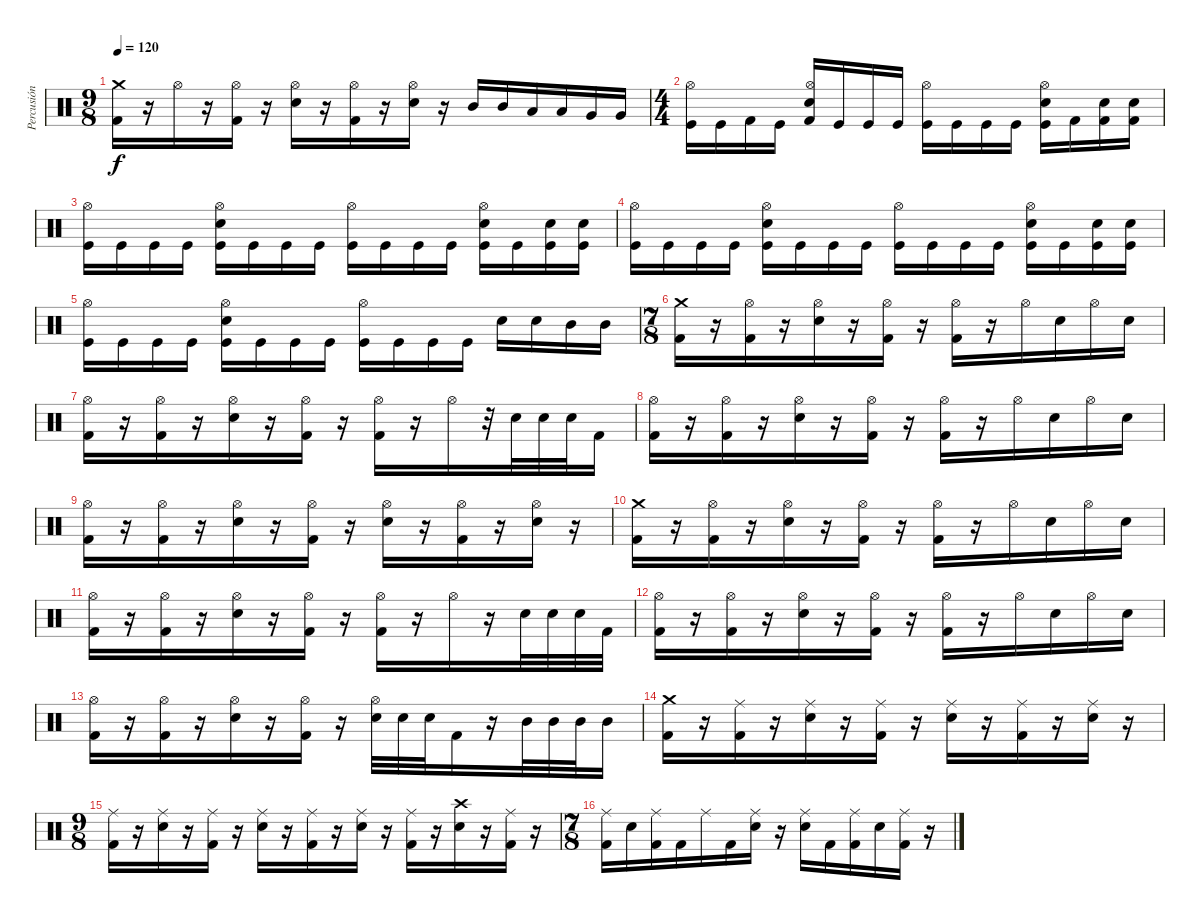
\track ("Percusión" "Percusión") {instrument percussion}
\staff {score}
\articulation defaults
\ts (9 8)
\tempo 120
\clef neutral
\ks c
("Crash medium (hit)" "Kick (hit) 2").16{dy f} r.16 "Hi-Hat (open)".16 r.16 ("Hi-Hat (open)" "Kick (hit) 2").16 r.16 ("Hi-Hat (open)" "Electric Snare (hit)").16 r.16 ("Hi-Hat (open)" "Kick (hit) 2").16 r.16 ("Hi-Hat (open)" "Electric Snare (hit)").16 r.16 "Mid Tom (hit)".16 "Mid Tom (hit)".16 "Low Tom (hit)".16 "Low Tom (hit)".16 "Very Low Tom (hit)".16 "Very Low Tom (hit)".16 |
\ts (4 4)
("Hi-Hat (open)" "Kick (hit)").16 "Kick (hit)".16 "Kick (hit) 2".16 "Kick (hit)".16 ("Hi-Hat (open)" "Electric Snare (hit)" "Kick (hit) 2").16 "Kick (hit)".16 "Kick (hit)".16 "Kick (hit)".16 ("Hi-Hat (open)" "Kick (hit)").16 "Kick (hit)".16 "Kick (hit)".16 "Kick (hit)".16 ("Hi-Hat (open)" "Electric Snare (hit)" "Kick (hit)").16 "Kick (hit) 2".16 ("Electric Snare (hit)" "Kick (hit) 2").16 ("Electric Snare (hit)" "Kick (hit) 2").16 |
("Hi-Hat (open)" "Kick (hit)").16 "Kick (hit)".16 "Kick (hit)".16 "Kick (hit)".16 ("Hi-Hat (open)" "Electric Snare (hit)" "Kick (hit)").16 "Kick (hit)".16 "Kick (hit)".16 "Kick (hit)".16 ("Hi-Hat (open)" "Kick (hit)").16 "Kick (hit)".16 "Kick (hit)".16 "Kick (hit)".16 ("Hi-Hat (open)" "Electric Snare (hit)" "Kick (hit)").16 "Kick (hit)".16 ("Electric Snare (hit)" "Kick (hit)").16 ("Electric Snare (hit)" "Kick (hit)").16 |
("Hi-Hat (open)" "Kick (hit)").16 "Kick (hit)".16 "Kick (hit)".16 "Kick (hit)".16 ("Hi-Hat (open)" "Electric Snare (hit)" "Kick (hit)").16 "Kick (hit)".16 "Kick (hit)".16 "Kick (hit)".16 ("Hi-Hat (open)" "Kick (hit)").16 "Kick (hit)".16 "Kick (hit)".16 "Kick (hit)".16 ("Hi-Hat (open)" "Electric Snare (hit)" "Kick (hit)").16 "Kick (hit)".16 ("Electric Snare (hit)" "Kick (hit)").16 ("Electric Snare (hit)" "Kick (hit)").16 |
("Hi-Hat (open)" "Kick (hit)").16 "Kick (hit)".16 "Kick (hit)".16 "Kick (hit)".16 ("Hi-Hat (open)" "Electric Snare (hit)" "Kick (hit)").16 "Kick (hit)".16 "Kick (hit)".16 "Kick (hit)".16 ("Hi-Hat (open)" "Kick (hit)").16 "Kick (hit)".16 "Kick (hit)".16 "Kick (hit)".16 "Electric Snare (hit)".16 "Electric Snare (hit)".16 "Mid Tom (hit)".16 "Mid Tom (hit)".16 |
\ts (7 8)
("Crash medium (hit)" "Kick (hit) 2").16 r.16 ("Hi-Hat (open)" "Kick (hit) 2").16 r.16 ("Hi-Hat (open)" "Electric Snare (hit)").16 r.16 ("Hi-Hat (open)" "Kick (hit) 2").16 r.16 ("Hi-Hat (open)" "Kick (hit) 2").16 r.16 "Hi-Hat (open)".16 "Electric Snare (hit)".16 "Hi-Hat (open)".16 "Electric Snare (hit)".16 |
("Hi-Hat (open)" "Kick (hit) 2").16 r.16 ("Hi-Hat (open)" "Kick (hit) 2").16 r.16 ("Hi-Hat (open)" "Electric Snare (hit)").16 r.16 ("Hi-Hat (open)" "Kick (hit) 2").16 r.16 ("Hi-Hat (open)" "Kick (hit) 2").16 r.16 "Hi-Hat (open)".16 r.32 "Electric Snare (hit)".32 "Electric Snare (hit)".32 "Electric Snare (hit)".32 "Kick (hit) 2".16 |
("Hi-Hat (open)" "Kick (hit) 2").16 r.16 ("Hi-Hat (open)" "Kick (hit) 2").16 r.16 ("Hi-Hat (open)" "Electric Snare (hit)").16 r.16 ("Hi-Hat (open)" "Kick (hit) 2").16 r.16 ("Hi-Hat (open)" "Kick (hit) 2").16 r.16 "Hi-Hat (open)".16 "Electric Snare (hit)".16 "Hi-Hat (open)".16 "Electric Snare (hit)".16 |
("Hi-Hat (open)" "Kick (hit) 2").16 r.16 ("Hi-Hat (open)" "Kick (hit) 2").16 r.16 ("Hi-Hat (open)" "Electric Snare (hit)").16 r.16 ("Hi-Hat (open)" "Kick (hit) 2").16 r.16 ("Hi-Hat (open)" "Electric Snare (hit)").16 r.16 ("Hi-Hat (open)" "Kick (hit) 2").16 r.16 ("Hi-Hat (open)" "Electric Snare (hit)").16 r.16 |
("Crash medium (hit)" "Kick (hit) 2").16 r.16 ("Hi-Hat (open)" "Kick (hit) 2").16 r.16 ("Hi-Hat (open)" "Electric Snare (hit)").16 r.16 ("Hi-Hat (open)" "Kick (hit) 2").16 r.16 ("Hi-Hat (open)" "Kick (hit) 2").16 r.16 "Hi-Hat (open)".16 "Electric Snare (hit)".16 "Hi-Hat (open)".16 "Electric Snare (hit)".16 |
("Hi-Hat (open)" "Kick (hit) 2").16 r.16 ("Hi-Hat (open)" "Kick (hit) 2").16 r.16 ("Hi-Hat (open)" "Electric Snare (hit)").16 r.16 ("Hi-Hat (open)" "Kick (hit) 2").16 r.16 ("Hi-Hat (open)" "Kick (hit) 2").16 r.16 "Hi-Hat (open)".16 r.16 "Electric Snare (hit)".32 "Electric Snare (hit)".32 "Electric Snare (hit)".32 "Kick (hit) 2".32 |
("Hi-Hat (open)" "Kick (hit) 2").16 r.16 ("Hi-Hat (open)" "Kick (hit) 2").16 r.16 ("Hi-Hat (open)" "Electric Snare (hit)").16 r.16 ("Hi-Hat (open)" "Kick (hit) 2").16 r.16 ("Hi-Hat (open)" "Kick (hit) 2").16 r.16 "Hi-Hat (open)".16 "Electric Snare (hit)".16 "Hi-Hat (open)".16 "Electric Snare (hit)".16 |
("Hi-Hat (open)" "Kick (hit) 2").16 r.16 ("Hi-Hat (open)" "Kick (hit) 2").16 r.16 ("Hi-Hat (open)" "Electric Snare (hit)").16 r.16 ("Hi-Hat (open)" "Kick (hit) 2").16 r.16 ("Hi-Hat (open)" "Electric Snare (hit)").32 "Electric Snare (hit)".32 "Electric Snare (hit)".32 "Kick (hit) 2".16 r.16 "Mid Tom (hit)".32 "Mid Tom (hit)".32 "Mid Tom (hit)".32 "Mid Tom (hit)".16 |
("Crash medium (hit)" "Kick (hit) 2").16 r.16 ("Ride (middle)" "Kick (hit) 2").16 r.16 ("Ride (middle)" "Electric Snare (hit)").16 r.16 ("Ride (middle)" "Kick (hit) 2").16 r.16 ("Ride (middle)" "Electric Snare (hit)").16 r.16 ("Ride (middle)" "Kick (hit) 2").16 r.16 ("Ride (middle)" "Electric Snare (hit)").16 r.16 |
\ts (9 8)
("Ride (middle)" "Kick (hit) 2").16 r.16 ("Ride (middle)" "Electric Snare (hit)").16 r.16 ("Ride (middle)" "Kick (hit) 2").16 r.16 ("Ride (middle)" "Electric Snare (hit)").16 r.16 ("Ride (middle)" "Kick (hit) 2").16 r.16 ("Ride (middle)" "Electric Snare (hit)").16 r.16 ("Ride (middle)" "Kick (hit) 2").16 r.16 ("Crash high (hit)" "Electric Snare (hit)").16 r.16 ("Ride (middle)" "Kick (hit) 2").16 r.16 |
\ts (7 8)
("Ride (middle)" "Kick (hit) 2").16 "Electric Snare (hit)".16 ("Ride (middle)" "Kick (hit) 2").16 "Kick (hit) 2".16 "Ride (middle)".16 "Kick (hit) 2".16 ("Ride (middle)" "Electric Snare (hit)").16 r.16 ("Ride (middle)" "Electric Snare (hit)").16 "Kick (hit) 2".16 ("Ride (middle)" "Kick (hit) 2").16 "Electric Snare (hit)".16 ("Ride (middle)" "Kick (hit) 2").16 r.16
